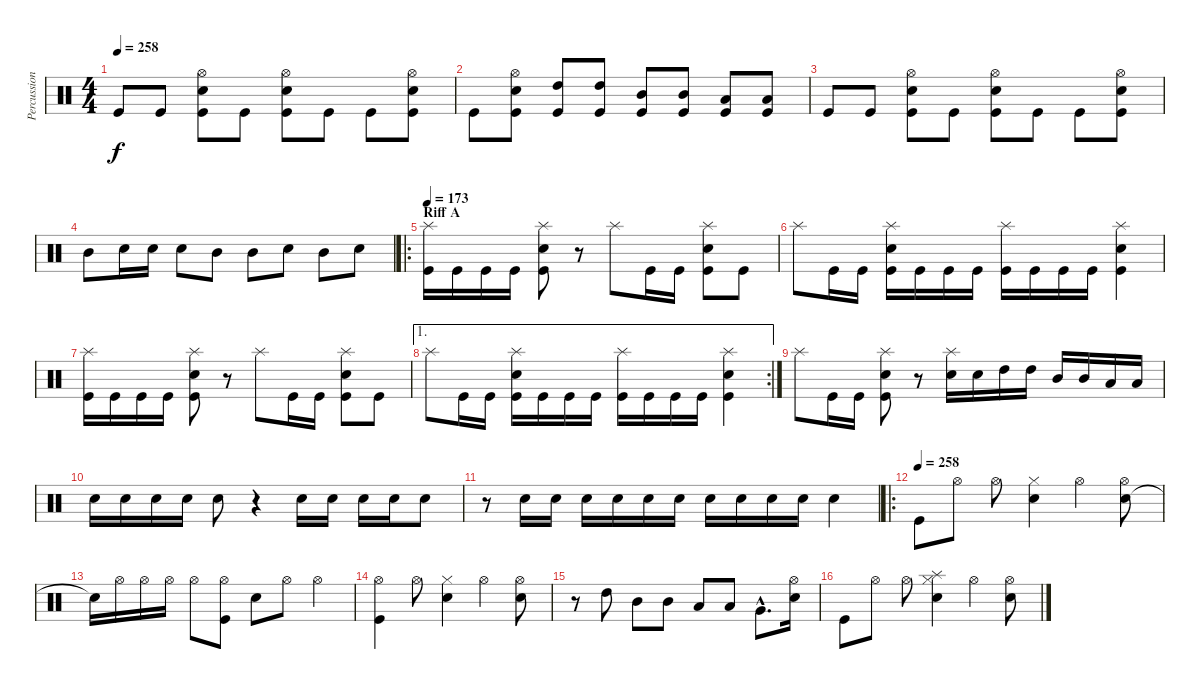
\track ("Percussion" "Percussion") {instrument percussion}
\staff {score}
\articulation defaults
\ts (4 4)
\tempo 258
\clef neutral
\ks c "Kick (hit)".8{dy f} "Kick (hit)".8
("Snare (hit) 2" "Hi-Hat (open)" "Kick (hit)").8 "Kick (hit)".8 ("Snare (hit) 2" "Hi-Hat (open)" "Kick (hit)").8 "Kick (hit)".8 "Kick (hit)".8 ("Snare (hit) 2" "Hi-Hat (open)" "Kick (hit)").8 |
"Kick (hit)".8 ("Snare (hit) 2" "Hi-Hat (open)" "Kick (hit)").8 ("High Tom (hit)" "Kick (hit)").8 ("High Tom (hit)" "Kick (hit)").8 ("Mid Tom (hit)" "Kick (hit)").8 ("Mid Tom (hit)" "Kick (hit)").8 ("Low Tom (hit)" "Kick (hit)").8 ("Low Tom (hit)" "Kick (hit)").8 |
"Kick (hit)".8 "Kick (hit)".8 ("Snare (hit) 2" "Hi-Hat (open)" "Kick (hit)").8 "Kick (hit)".8 ("Snare (hit) 2" "Hi-Hat (open)" "Kick (hit)").8 "Kick (hit)".8 "Kick (hit)".8 ("Snare (hit) 2" "Hi-Hat (open)" "Kick (hit)").8 |
"Mid Tom (hit)".8 "Snare (hit) 2".16 "Snare (hit) 2".16 "Snare (hit) 2".8 "Mid Tom (hit)".8 "Mid Tom (hit)".8 "Snare (hit) 2".8 "Mid Tom (hit)".8 "Snare (hit) 2".8 |
\ro
\section ("" "Riff A")
\tempo 173
("Splash (hit)" "Kick (hit)").16 "Kick (hit)".16 "Kick (hit)".16 "Kick (hit)".16 ("Splash (hit)" "Snare (hit) 2" "Kick (hit)").8 r.8 "Splash (hit)".8 "Kick (hit)".16 "Kick (hit)".16 ("Splash (hit)" "Snare (hit) 2" "Kick (hit)").8 "Kick (hit)".8 |
"Splash (hit)".8 "Kick (hit)".16 "Kick (hit)".16 ("Splash (hit)" "Snare (hit) 2" "Kick (hit)").16 "Kick (hit)".16 "Kick (hit)".16 "Kick (hit)".16 ("Splash (hit)" "Kick (hit)").16 "Kick (hit)".16 "Kick (hit)".16 "Kick (hit)".16 ("Splash (hit)" "Snare (hit) 2" "Kick (hit)").4 |
("Splash (hit)" "Kick (hit)").16 "Kick (hit)".16 "Kick (hit)".16 "Kick (hit)".16 ("Splash (hit)" "Snare (hit) 2" "Kick (hit)").8 r.8 "Splash (hit)".8 "Kick (hit)".16 "Kick (hit)".16 ("Splash (hit)" "Snare (hit) 2" "Kick (hit)").8 "Kick (hit)".8 |
\ae 1
\rc 2 "Splash (hit)".8 "Kick (hit)".16 "Kick (hit)".16
("Splash (hit)" "Snare (hit) 2" "Kick (hit)").16 "Kick (hit)".16 "Kick (hit)".16 "Kick (hit)".16 ("Splash (hit)" "Kick (hit)").16 "Kick (hit)".16 "Kick (hit)".16 "Kick (hit)".16 ("Splash (hit)" "Snare (hit) 2" "Kick (hit)").4 |
"Splash (hit)".8 "Kick (hit)".16 "Kick (hit)".16 ("Splash (hit)" "Snare (hit) 2" "Kick (hit)").8 r.8 ("Splash (hit)" "Snare (hit) 2").16 "Snare (hit) 2".16 "High Tom (hit)".16 "High Tom (hit)".16 "Mid Tom (hit)".16 "Mid Tom (hit)".16 "Low Tom (hit)".16 "Low Tom (hit)".16 |
"Snare (hit) 2".16 "Snare (hit) 2".16 "Snare (hit) 2".16 "Snare (hit) 2".16 "Snare (hit) 2".8 r.4 "Snare (hit) 2".16 "Snare (hit) 2".16 "Snare (hit) 2".16 "Snare (hit) 2".16 "Snare (hit) 2".8 |
r.8 "Snare (hit) 2".16 "Snare (hit) 2".16 "Snare (hit) 2".16 "Snare (hit) 2".16 "Snare (hit) 2".16 "Snare (hit) 2".16 "Snare (hit) 2".16 "Snare (hit) 2".16 "Snare (hit) 2".16 "Snare (hit) 2".16 "Snare (hit) 2".4 |
\ro
\tempo (258)
"Kick (hit)".8 "Hi-Hat (open)".8 "Hi-Hat (open)".8 ("Snare (hit) 2" "Hi-Hat (closed)").4 "Hi-Hat (open)".4 ("Snare (hit) 2" "Hi-Hat (open)").8 |
"Snare (hit)"{t}.16 "Hi-Hat (open)".16 "Hi-Hat (open)".16 "Hi-Hat (open)".16 "Hi-Hat (open)".8 ("Hi-Hat (open)" "Kick (hit)").8 "Snare (hit) 2".8 "Hi-Hat (open)".8 "Hi-Hat (open)".4 |
("Hi-Hat (open)" "Kick (hit)").4 "Hi-Hat (open)".8 ("Snare (hit) 2" "Hi-Hat (closed)").4 "Hi-Hat (open)".4 ("Snare (hit) 2" "Hi-Hat (open)").8 |
r.8 "High Tom (hit)".8 "Mid Tom (hit)".8 "Mid Tom (hit)".8 "Low Tom (hit)".8 "Low Tom (hit)".8 "Very Low Tom (hit)"{hac}.8{d} ("Snare (hit) 2" "Hi-Hat (open)").16 |
"Kick (hit)".8 "Hi-Hat (open)".8 "Hi-Hat (open)".8 ("Splash (hit)" "Snare (hit) 2" "Hi-Hat (closed)").4 "Hi-Hat (open)".4 ("Snare (hit) 2" "Hi-Hat (open)").8
